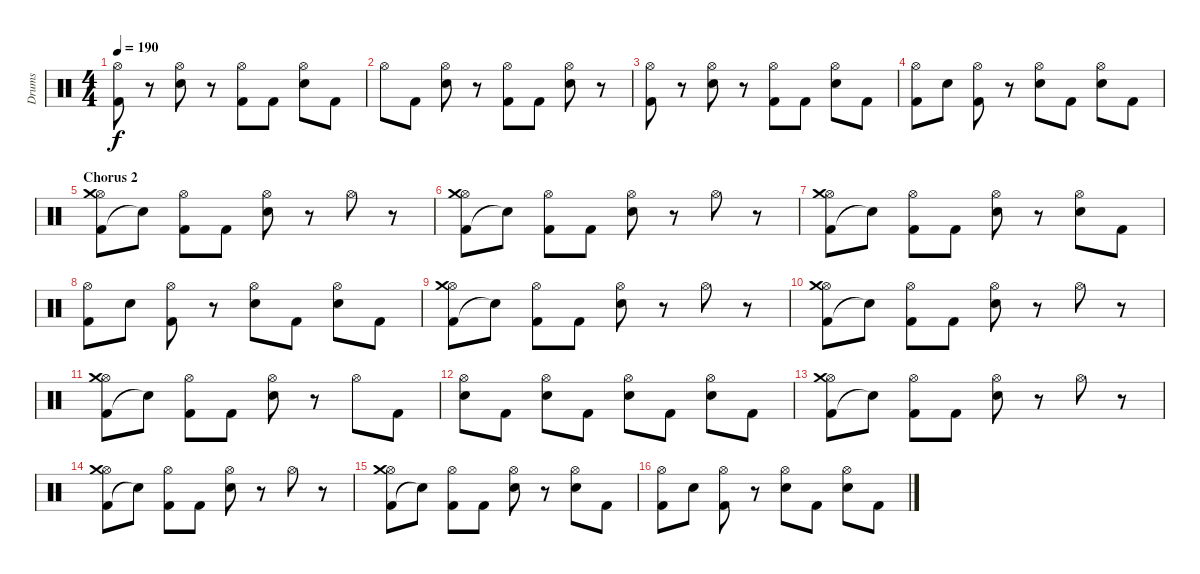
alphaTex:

\track ("Drums" "Drums") {instrument percussion}
\staff {score}
\articulation defaults
\ts (4 4)
\tempo 190
\clef neutral
\ks c
("Kick (hit) 2" "Hi-Hat (open)").8{dy f} r.8 ("Electric Snare (hit)" "Hi-Hat (open)").8 r.8 ("Kick (hit) 2" "Hi-Hat (open)").8 "Kick (hit) 2".8 ("Electric Snare (hit)" "Hi-Hat (open)").8 "Kick (hit) 2".8 |
"Hi-Hat (open)".8 "Kick (hit) 2".8 ("Electric Snare (hit)" "Hi-Hat (open)").8 r.8 ("Kick (hit) 2" "Hi-Hat (open)").8 "Kick (hit) 2".8 ("Electric Snare (hit)" "Hi-Hat (open)").8 r.8 |
("Kick (hit) 2" "Hi-Hat (open)").8 r.8 ("Electric Snare (hit)" "Hi-Hat (open)").8 r.8 ("Kick (hit) 2" "Hi-Hat (open)").8 "Kick (hit) 2".8 ("Electric Snare (hit)" "Hi-Hat (open)").8 "Kick (hit) 2".8 |
("Kick (hit) 2" "Hi-Hat (open)").8 "Electric Snare (hit)".8 ("Kick (hit) 2" "Hi-Hat (open)").8 r.8 ("Electric Snare (hit)" "Hi-Hat (open)").8 "Kick (hit) 2".8 ("Electric Snare (hit)" "Hi-Hat (open)").8 "Kick (hit) 2".8 |
\section ("" "Chorus 2")
("Kick (hit) 2" "Hi-Hat (open)" "Crash medium (hit)").8 "Snare (hit)"{t}.8 ("Kick (hit) 2" "Hi-Hat (open)").8 "Kick (hit) 2".8 ("Electric Snare (hit)" "Hi-Hat (open)").8 r.8 "Hi-Hat (open)".8 r.8 |
("Kick (hit) 2" "Hi-Hat (open)" "Crash medium (hit)").8 "Snare (hit)"{t}.8 ("Kick (hit) 2" "Hi-Hat (open)").8 "Kick (hit) 2".8 ("Electric Snare (hit)" "Hi-Hat (open)").8 r.8 "Hi-Hat (open)".8 r.8 |
("Kick (hit) 2" "Hi-Hat (open)" "Crash medium (hit)").8 "Snare (hit)"{t}.8 ("Kick (hit) 2" "Hi-Hat (open)").8 "Kick (hit) 2".8 ("Electric Snare (hit)" "Hi-Hat (open)").8 r.8 ("Electric Snare (hit)" "Hi-Hat (open)").8 "Kick (hit) 2".8 |
("Kick (hit) 2" "Hi-Hat (open)").8 "Electric Snare (hit)".8 ("Kick (hit) 2" "Hi-Hat (open)").8 r.8 ("Electric Snare (hit)" "Hi-Hat (open)").8 "Kick (hit) 2".8 ("Electric Snare (hit)" "Hi-Hat (open)").8 "Kick (hit) 2".8 |
("Kick (hit) 2" "Hi-Hat (open)" "Crash medium (hit)").8 "Snare (hit)"{t}.8 ("Kick (hit) 2" "Hi-Hat (open)").8 "Kick (hit) 2".8 ("Electric Snare (hit)" "Hi-Hat (open)").8 r.8 "Hi-Hat (open)".8 r.8 |
("Kick (hit) 2" "Hi-Hat (open)" "Crash medium (hit)").8 "Snare (hit)"{t}.8 ("Kick (hit) 2" "Hi-Hat (open)").8 "Kick (hit) 2".8 ("Electric Snare (hit)" "Hi-Hat (open)").8 r.8 "Hi-Hat (open)".8 r.8 |
("Kick (hit) 2" "Hi-Hat (open)" "Crash medium (hit)").8 "Snare (hit)"{t}.8 ("Kick (hit) 2" "Hi-Hat (open)").8 "Kick (hit) 2".8 ("Electric Snare (hit)" "Hi-Hat (open)").8 r.8 "Hi-Hat (open)".8 "Kick (hit) 2".8 |
("Electric Snare (hit)" "Hi-Hat (open)").8 "Kick (hit) 2".8 ("Electric Snare (hit)" "Hi-Hat (open)").8 "Kick (hit) 2".8 ("Electric Snare (hit)" "Hi-Hat (open)").8 "Kick (hit) 2".8 ("Electric Snare (hit)" "Hi-Hat (open)").8 "Kick (hit) 2".8 |
("Kick (hit) 2" "Hi-Hat (open)" "Crash medium (hit)").8 "Snare (hit)"{t}.8 ("Kick (hit) 2" "Hi-Hat (open)").8 "Kick (hit) 2".8 ("Electric Snare (hit)" "Hi-Hat (open)").8 r.8 "Hi-Hat (open)".8 r.8 |
("Kick (hit) 2" "Hi-Hat (open)" "Crash medium (hit)").8 "Snare (hit)"{t}.8 ("Kick (hit) 2" "Hi-Hat (open)").8 "Kick (hit) 2".8 ("Electric Snare (hit)" "Hi-Hat (open)").8 r.8 "Hi-Hat (open)".8 r.8 |
("Kick (hit) 2" "Hi-Hat (open)" "Crash medium (hit)").8 "Snare (hit)"{t}.8 ("Kick (hit) 2" "Hi-Hat (open)").8 "Kick (hit) 2".8 ("Electric Snare (hit)" "Hi-Hat (open)").8 r.8 ("Electric Snare (hit)" "Hi-Hat (open)").8 "Kick (hit) 2".8 |
("Kick (hit) 2" "Hi-Hat (open)").8 "Electric Snare (hit)".8 ("Kick (hit) 2" "Hi-Hat (open)").8 r.8 ("Electric Snare (hit)" "Hi-Hat (open)").8 "Kick (hit) 2".8 ("Electric Snare (hit)" "Hi-Hat (open)").8 "Kick (hit) 2".8
